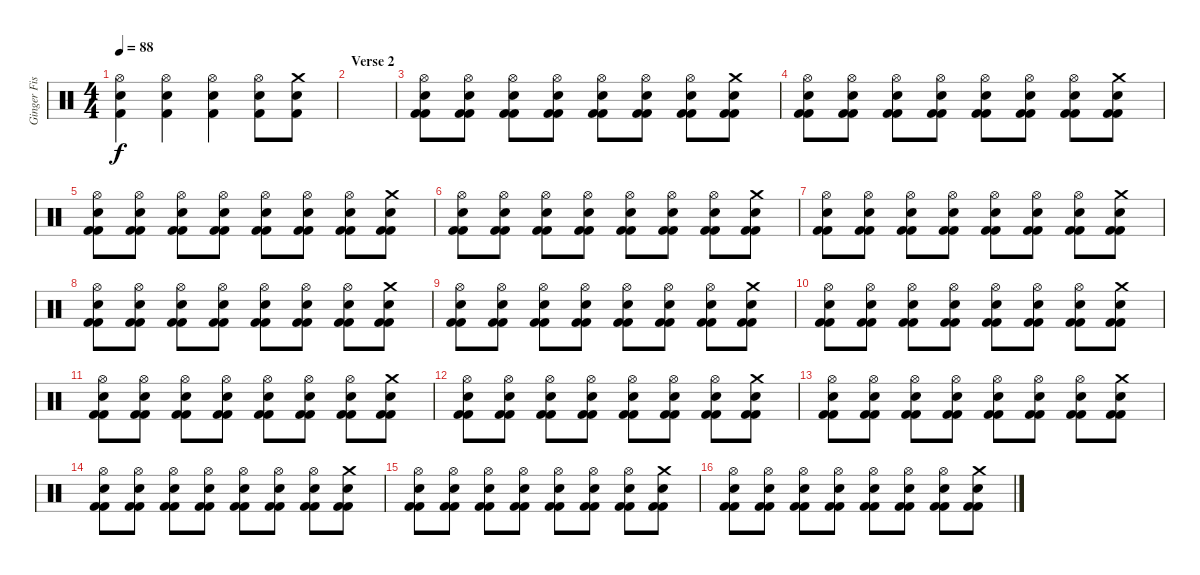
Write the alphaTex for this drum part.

\track ("Ginger Fish (Drums)" "Ginger Fis") {instrument percussion}
\staff {score}
\articulation defaults
\ts (4 4)
\tempo 88
\clef neutral
\ks c
("Hi-Hat (open)" "Snare (hit) 2" "Kick (hit) 2").4{dy f} ("Hi-Hat (open)" "Snare (hit) 2" "Kick (hit) 2").4 ("Hi-Hat (open)" "Snare (hit) 2" "Kick (hit) 2").4 ("Hi-Hat (open)" "Snare (hit) 2" "Kick (hit) 2").8 ("Crash medium (hit)" "Electric Snare (hit)" "Kick (hit) 2").8 |
\section ("" "Verse 2")
|
("Hi-Hat (open)" "Snare (hit) 2" "Kick (hit) 2" "Kick (hit) 2").8 ("Hi-Hat (open)" "Electric Snare (hit)" "Kick (hit) 2" "Kick (hit) 2").8 ("Hi-Hat (open)" "Snare (hit) 2" "Kick (hit) 2" "Kick (hit) 2").8 ("Hi-Hat (open)" "Electric Snare (hit)" "Kick (hit) 2" "Kick (hit) 2").8 ("Hi-Hat (open)" "Snare (hit) 2" "Kick (hit) 2" "Kick (hit) 2").8 ("Hi-Hat (open)" "Electric Snare (hit)" "Kick (hit) 2" "Kick (hit) 2").8 ("Hi-Hat (open)" "Snare (hit) 2" "Kick (hit) 2" "Kick (hit) 2").8 ("Crash medium (hit)" "Electric Snare (hit)" "Kick (hit) 2" "Kick (hit) 2").8 |
("Hi-Hat (open)" "Snare (hit) 2" "Kick (hit) 2" "Kick (hit) 2").8 ("Hi-Hat (open)" "Electric Snare (hit)" "Kick (hit) 2" "Kick (hit) 2").8 ("Hi-Hat (open)" "Snare (hit) 2" "Kick (hit) 2" "Kick (hit) 2").8 ("Hi-Hat (open)" "Electric Snare (hit)" "Kick (hit) 2" "Kick (hit) 2").8 ("Hi-Hat (open)" "Snare (hit) 2" "Kick (hit) 2" "Kick (hit) 2").8 ("Hi-Hat (open)" "Electric Snare (hit)" "Kick (hit) 2" "Kick (hit) 2").8 ("Hi-Hat (open)" "Snare (hit) 2" "Kick (hit) 2" "Kick (hit) 2").8 ("Crash medium (hit)" "Electric Snare (hit)" "Kick (hit) 2" "Kick (hit) 2").8 |
("Hi-Hat (open)" "Snare (hit) 2" "Kick (hit) 2" "Kick (hit) 2").8 ("Hi-Hat (open)" "Electric Snare (hit)" "Kick (hit) 2" "Kick (hit) 2").8 ("Hi-Hat (open)" "Snare (hit) 2" "Kick (hit) 2" "Kick (hit) 2").8 ("Hi-Hat (open)" "Electric Snare (hit)" "Kick (hit) 2" "Kick (hit) 2").8 ("Hi-Hat (open)" "Snare (hit) 2" "Kick (hit) 2" "Kick (hit) 2").8 ("Hi-Hat (open)" "Electric Snare (hit)" "Kick (hit) 2" "Kick (hit) 2").8 ("Hi-Hat (open)" "Snare (hit) 2" "Kick (hit) 2" "Kick (hit) 2").8 ("Crash medium (hit)" "Electric Snare (hit)" "Kick (hit) 2" "Kick (hit) 2").8 |
("Hi-Hat (open)" "Snare (hit) 2" "Kick (hit) 2" "Kick (hit) 2").8 ("Hi-Hat (open)" "Electric Snare (hit)" "Kick (hit) 2" "Kick (hit) 2").8 ("Hi-Hat (open)" "Snare (hit) 2" "Kick (hit) 2" "Kick (hit) 2").8 ("Hi-Hat (open)" "Electric Snare (hit)" "Kick (hit) 2" "Kick (hit) 2").8 ("Hi-Hat (open)" "Snare (hit) 2" "Kick (hit) 2" "Kick (hit) 2").8 ("Hi-Hat (open)" "Electric Snare (hit)" "Kick (hit) 2" "Kick (hit) 2").8 ("Hi-Hat (open)" "Snare (hit) 2" "Kick (hit) 2" "Kick (hit) 2").8 ("Crash medium (hit)" "Electric Snare (hit)" "Kick (hit) 2" "Kick (hit) 2").8 |
("Hi-Hat (open)" "Snare (hit) 2" "Kick (hit) 2" "Kick (hit) 2").8 ("Hi-Hat (open)" "Electric Snare (hit)" "Kick (hit) 2" "Kick (hit) 2").8 ("Hi-Hat (open)" "Snare (hit) 2" "Kick (hit) 2" "Kick (hit) 2").8 ("Hi-Hat (open)" "Electric Snare (hit)" "Kick (hit) 2" "Kick (hit) 2").8 ("Hi-Hat (open)" "Snare (hit) 2" "Kick (hit) 2" "Kick (hit) 2").8 ("Hi-Hat (open)" "Electric Snare (hit)" "Kick (hit) 2" "Kick (hit) 2").8 ("Hi-Hat (open)" "Snare (hit) 2" "Kick (hit) 2" "Kick (hit) 2").8 ("Crash medium (hit)" "Electric Snare (hit)" "Kick (hit) 2" "Kick (hit) 2").8 |
("Hi-Hat (open)" "Snare (hit) 2" "Kick (hit) 2" "Kick (hit) 2").8 ("Hi-Hat (open)" "Electric Snare (hit)" "Kick (hit) 2" "Kick (hit) 2").8 ("Hi-Hat (open)" "Snare (hit) 2" "Kick (hit) 2" "Kick (hit) 2").8 ("Hi-Hat (open)" "Electric Snare (hit)" "Kick (hit) 2" "Kick (hit) 2").8 ("Hi-Hat (open)" "Snare (hit) 2" "Kick (hit) 2" "Kick (hit) 2").8 ("Hi-Hat (open)" "Electric Snare (hit)" "Kick (hit) 2" "Kick (hit) 2").8 ("Hi-Hat (open)" "Snare (hit) 2" "Kick (hit) 2" "Kick (hit) 2").8 ("Crash medium (hit)" "Electric Snare (hit)" "Kick (hit) 2" "Kick (hit) 2").8 |
("Hi-Hat (open)" "Snare (hit) 2" "Kick (hit) 2" "Kick (hit) 2").8 ("Hi-Hat (open)" "Electric Snare (hit)" "Kick (hit) 2" "Kick (hit) 2").8 ("Hi-Hat (open)" "Snare (hit) 2" "Kick (hit) 2" "Kick (hit) 2").8 ("Hi-Hat (open)" "Electric Snare (hit)" "Kick (hit) 2" "Kick (hit) 2").8 ("Hi-Hat (open)" "Snare (hit) 2" "Kick (hit) 2" "Kick (hit) 2").8 ("Hi-Hat (open)" "Electric Snare (hit)" "Kick (hit) 2" "Kick (hit) 2").8 ("Hi-Hat (open)" "Snare (hit) 2" "Kick (hit) 2" "Kick (hit) 2").8 ("Crash medium (hit)" "Electric Snare (hit)" "Kick (hit) 2" "Kick (hit) 2").8 |
("Hi-Hat (open)" "Snare (hit) 2" "Kick (hit) 2" "Kick (hit) 2").8 ("Hi-Hat (open)" "Electric Snare (hit)" "Kick (hit) 2" "Kick (hit) 2").8 ("Hi-Hat (open)" "Snare (hit) 2" "Kick (hit) 2" "Kick (hit) 2").8 ("Hi-Hat (open)" "Electric Snare (hit)" "Kick (hit) 2" "Kick (hit) 2").8 ("Hi-Hat (open)" "Snare (hit) 2" "Kick (hit) 2" "Kick (hit) 2").8 ("Hi-Hat (open)" "Electric Snare (hit)" "Kick (hit) 2" "Kick (hit) 2").8 ("Hi-Hat (open)" "Snare (hit) 2" "Kick (hit) 2" "Kick (hit) 2").8 ("Crash medium (hit)" "Electric Snare (hit)" "Kick (hit) 2" "Kick (hit) 2").8 |
("Hi-Hat (open)" "Snare (hit) 2" "Kick (hit) 2" "Kick (hit) 2").8 ("Hi-Hat (open)" "Electric Snare (hit)" "Kick (hit) 2" "Kick (hit) 2").8 ("Hi-Hat (open)" "Snare (hit) 2" "Kick (hit) 2" "Kick (hit) 2").8 ("Hi-Hat (open)" "Electric Snare (hit)" "Kick (hit) 2" "Kick (hit) 2").8 ("Hi-Hat (open)" "Snare (hit) 2" "Kick (hit) 2" "Kick (hit) 2").8 ("Hi-Hat (open)" "Electric Snare (hit)" "Kick (hit) 2" "Kick (hit) 2").8 ("Hi-Hat (open)" "Snare (hit) 2" "Kick (hit) 2" "Kick (hit) 2").8 ("Crash medium (hit)" "Electric Snare (hit)" "Kick (hit) 2" "Kick (hit) 2").8 |
("Hi-Hat (open)" "Snare (hit) 2" "Kick (hit) 2" "Kick (hit) 2").8 ("Hi-Hat (open)" "Electric Snare (hit)" "Kick (hit) 2" "Kick (hit) 2").8 ("Hi-Hat (open)" "Snare (hit) 2" "Kick (hit) 2" "Kick (hit) 2").8 ("Hi-Hat (open)" "Electric Snare (hit)" "Kick (hit) 2" "Kick (hit) 2").8 ("Hi-Hat (open)" "Snare (hit) 2" "Kick (hit) 2" "Kick (hit) 2").8 ("Hi-Hat (open)" "Electric Snare (hit)" "Kick (hit) 2" "Kick (hit) 2").8 ("Hi-Hat (open)" "Snare (hit) 2" "Kick (hit) 2" "Kick (hit) 2").8 ("Crash medium (hit)" "Electric Snare (hit)" "Kick (hit) 2" "Kick (hit) 2").8 |
("Hi-Hat (open)" "Snare (hit) 2" "Kick (hit) 2" "Kick (hit) 2").8 ("Hi-Hat (open)" "Electric Snare (hit)" "Kick (hit) 2" "Kick (hit) 2").8 ("Hi-Hat (open)" "Snare (hit) 2" "Kick (hit) 2" "Kick (hit) 2").8 ("Hi-Hat (open)" "Electric Snare (hit)" "Kick (hit) 2" "Kick (hit) 2").8 ("Hi-Hat (open)" "Snare (hit) 2" "Kick (hit) 2" "Kick (hit) 2").8 ("Hi-Hat (open)" "Electric Snare (hit)" "Kick (hit) 2" "Kick (hit) 2").8 ("Hi-Hat (open)" "Snare (hit) 2" "Kick (hit) 2" "Kick (hit) 2").8 ("Crash medium (hit)" "Electric Snare (hit)" "Kick (hit) 2" "Kick (hit) 2").8 |
("Hi-Hat (open)" "Snare (hit) 2" "Kick (hit) 2" "Kick (hit) 2").8 ("Hi-Hat (open)" "Electric Snare (hit)" "Kick (hit) 2" "Kick (hit) 2").8 ("Hi-Hat (open)" "Snare (hit) 2" "Kick (hit) 2" "Kick (hit) 2").8 ("Hi-Hat (open)" "Electric Snare (hit)" "Kick (hit) 2" "Kick (hit) 2").8 ("Hi-Hat (open)" "Snare (hit) 2" "Kick (hit) 2" "Kick (hit) 2").8 ("Hi-Hat (open)" "Electric Snare (hit)" "Kick (hit) 2" "Kick (hit) 2").8 ("Hi-Hat (open)" "Snare (hit) 2" "Kick (hit) 2" "Kick (hit) 2").8 ("Crash medium (hit)" "Electric Snare (hit)" "Kick (hit) 2" "Kick (hit) 2").8 |
("Hi-Hat (open)" "Snare (hit) 2" "Kick (hit) 2" "Kick (hit) 2").8 ("Hi-Hat (open)" "Electric Snare (hit)" "Kick (hit) 2" "Kick (hit) 2").8 ("Hi-Hat (open)" "Snare (hit) 2" "Kick (hit) 2" "Kick (hit) 2").8 ("Hi-Hat (open)" "Electric Snare (hit)" "Kick (hit) 2" "Kick (hit) 2").8 ("Hi-Hat (open)" "Snare (hit) 2" "Kick (hit) 2" "Kick (hit) 2").8 ("Hi-Hat (open)" "Electric Snare (hit)" "Kick (hit) 2" "Kick (hit) 2").8 ("Hi-Hat (open)" "Snare (hit) 2" "Kick (hit) 2" "Kick (hit) 2").8 ("Crash medium (hit)" "Electric Snare (hit)" "Kick (hit) 2" "Kick (hit) 2").8 |
("Hi-Hat (open)" "Snare (hit) 2" "Kick (hit) 2" "Kick (hit) 2").8 ("Hi-Hat (open)" "Electric Snare (hit)" "Kick (hit) 2" "Kick (hit) 2").8 ("Hi-Hat (open)" "Snare (hit) 2" "Kick (hit) 2" "Kick (hit) 2").8 ("Hi-Hat (open)" "Electric Snare (hit)" "Kick (hit) 2" "Kick (hit) 2").8 ("Hi-Hat (open)" "Snare (hit) 2" "Kick (hit) 2" "Kick (hit) 2").8 ("Hi-Hat (open)" "Electric Snare (hit)" "Kick (hit) 2" "Kick (hit) 2").8 ("Hi-Hat (open)" "Snare (hit) 2" "Kick (hit) 2" "Kick (hit) 2").8 ("Crash medium (hit)" "Electric Snare (hit)" "Kick (hit) 2" "Kick (hit) 2").8
